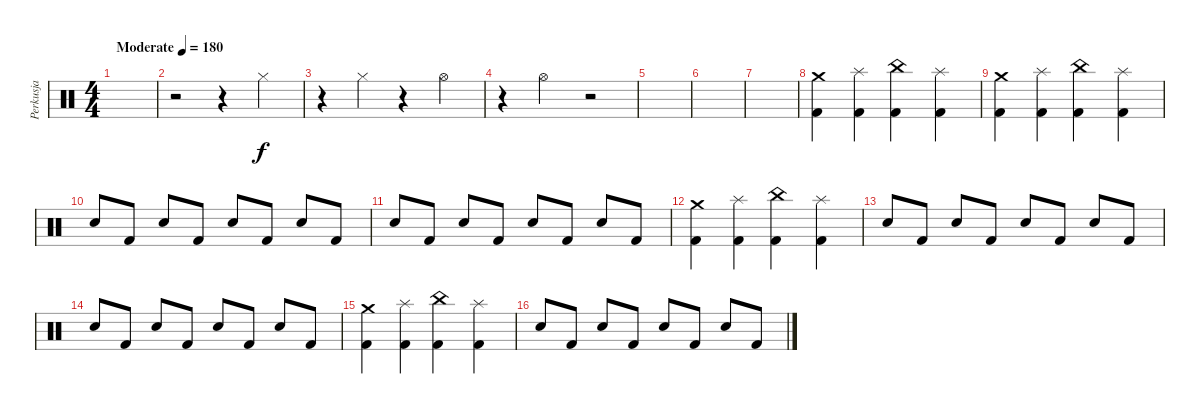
\track ("Perkusja" "Perkusja") {instrument percussion}
\staff {score}
\articulation defaults
\ts (4 4)
\tempo (180 "Moderate")
\clef neutral
\ks c
|
r.2 r.4 "Hi-Hat (closed)".4 |
r.4 "Hi-Hat (closed)".4 r.4 "Hi-Hat (open)".4 |
r.4 "Hi-Hat (open)".2 r.2 |
|
|
|
("Crash medium (hit)" "Kick (hit) 2").4 ("Splash (hit)" "Kick (hit) 2").4 ("China (hit)" "Kick (hit) 2").4 ("Splash (hit)" "Kick (hit) 2").4 |
("Crash medium (hit)" "Kick (hit) 2").4 ("Splash (hit)" "Kick (hit) 2").4 ("China (hit)" "Kick (hit) 2").4 ("Splash (hit)" "Kick (hit) 2").4 |
"Electric Snare (hit)".8 "Kick (hit) 2".8 "Electric Snare (hit)".8 "Kick (hit) 2".8 "Electric Snare (hit)".8 "Kick (hit) 2".8 "Electric Snare (hit)".8 "Kick (hit) 2".8 |
"Electric Snare (hit)".8 "Kick (hit) 2".8 "Electric Snare (hit)".8 "Kick (hit) 2".8 "Electric Snare (hit)".8 "Kick (hit) 2".8 "Electric Snare (hit)".8 "Kick (hit) 2".8 |
("Crash medium (hit)" "Kick (hit) 2").4 ("Splash (hit)" "Kick (hit) 2").4 ("China (hit)" "Kick (hit) 2").4 ("Splash (hit)" "Kick (hit) 2").4 |
"Electric Snare (hit)".8 "Kick (hit) 2".8 "Electric Snare (hit)".8 "Kick (hit) 2".8 "Electric Snare (hit)".8 "Kick (hit) 2".8 "Electric Snare (hit)".8 "Kick (hit) 2".8 |
"Electric Snare (hit)".8 "Kick (hit) 2".8 "Electric Snare (hit)".8 "Kick (hit) 2".8 "Electric Snare (hit)".8 "Kick (hit) 2".8 "Electric Snare (hit)".8 "Kick (hit) 2".8 |
("Crash medium (hit)" "Kick (hit) 2").4 ("Splash (hit)" "Kick (hit) 2").4 ("China (hit)" "Kick (hit) 2").4 ("Splash (hit)" "Kick (hit) 2").4 |
"Electric Snare (hit)".8 "Kick (hit) 2".8 "Electric Snare (hit)".8 "Kick (hit) 2".8 "Electric Snare (hit)".8 "Kick (hit) 2".8 "Electric Snare (hit)".8 "Kick (hit) 2".8
